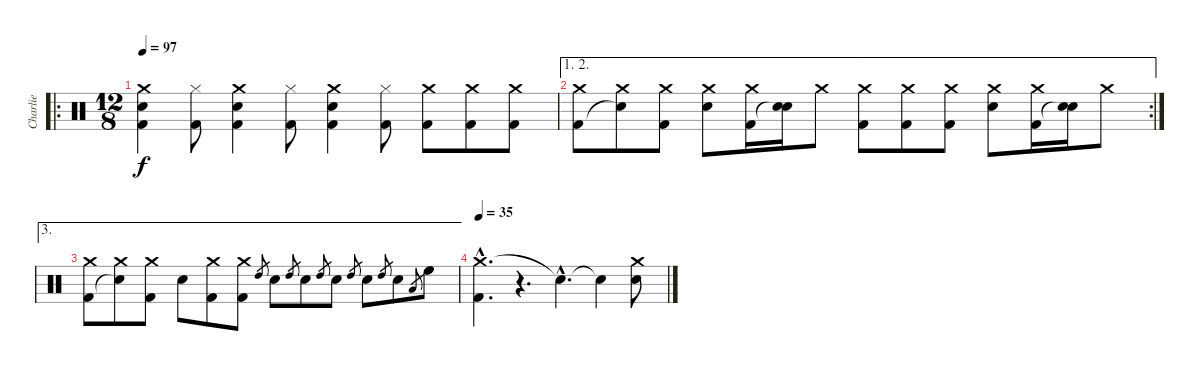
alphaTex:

\track ("Charlie" "Charlie") {instrument percussion}
\staff {score}
\articulation defaults
\ro
\ts (12 8)
\tempo 97
\clef neutral
\ks c
("Crash medium (hit)" "Snare (hit) 2" "Kick (hit) 2").4{dy f} ("Hi-Hat (closed)" "Kick (hit) 2").8 ("Crash medium (hit)" "Snare (hit) 2" "Kick (hit) 2").4 ("Hi-Hat (closed)" "Kick (hit) 2").8 ("Crash medium (hit)" "Snare (hit) 2" "Kick (hit) 2").4 ("Hi-Hat (closed)" "Kick (hit) 2").8 ("Crash medium (hit)" "Kick (hit) 2").8 ("Crash medium (hit)" "Kick (hit) 2").8 ("Crash medium (hit)" "Kick (hit) 2").8 |
\ae (1 2)
\rc 2
("Crash medium (hit)" "Kick (hit) 2").8 ("Crash medium (hit)" "Snare (hit)"{t}).8 ("Crash medium (hit)" "Kick (hit) 2").8 ("Crash medium (hit)" "Snare (hit) 2").8 ("Crash medium (hit)" "Kick (hit) 2").16 ("Snare (hit) 2" "Snare (hit)"{t}).16 "Crash medium (hit)".8 ("Crash medium (hit)" "Kick (hit) 2").8 ("Crash medium (hit)" "Kick (hit) 2").8 ("Crash medium (hit)" "Kick (hit) 2").8 ("Crash medium (hit)" "Snare (hit) 2").8 ("Crash medium (hit)" "Kick (hit) 2").16 ("Snare (hit) 2" "Snare (hit)"{t}).16 "Crash medium (hit)".8 |
\ae 3
("Crash medium (hit)" "Kick (hit) 2").8 ("Crash medium (hit)" "Snare (hit)"{t}).8 ("Crash medium (hit)" "Kick (hit) 2").8 "Snare (hit) 2".8 ("Crash medium (hit)" "Kick (hit) 2").8 ("Crash medium (hit)" "Kick (hit) 2").8 "High Tom (hit)"{h}.8{gr} "Snare (hit) 2".8 "High Tom (hit)"{h}.8{gr} "Snare (hit) 2".8 "High Tom (hit)"{h}.8{gr} "Snare (hit) 2".8 "High Tom (hit)"{h}.8{gr} "Snare (hit) 2".8 "High Tom (hit)"{h}.8{gr} "Snare (hit) 2".8 "Low Tom (hit)"{h}.8{gr} "High Floor Tom (hit)".8 |
\tempo 35
("Crash medium (hit)"{hac} "Kick (hit) 2"{hac}).4{d} r.4{d} "Snare (hit)"{hac t}.4{d} "Snare (hit)"{t}.4 ("Crash medium (hit)" "Snare (hit) 2").8
